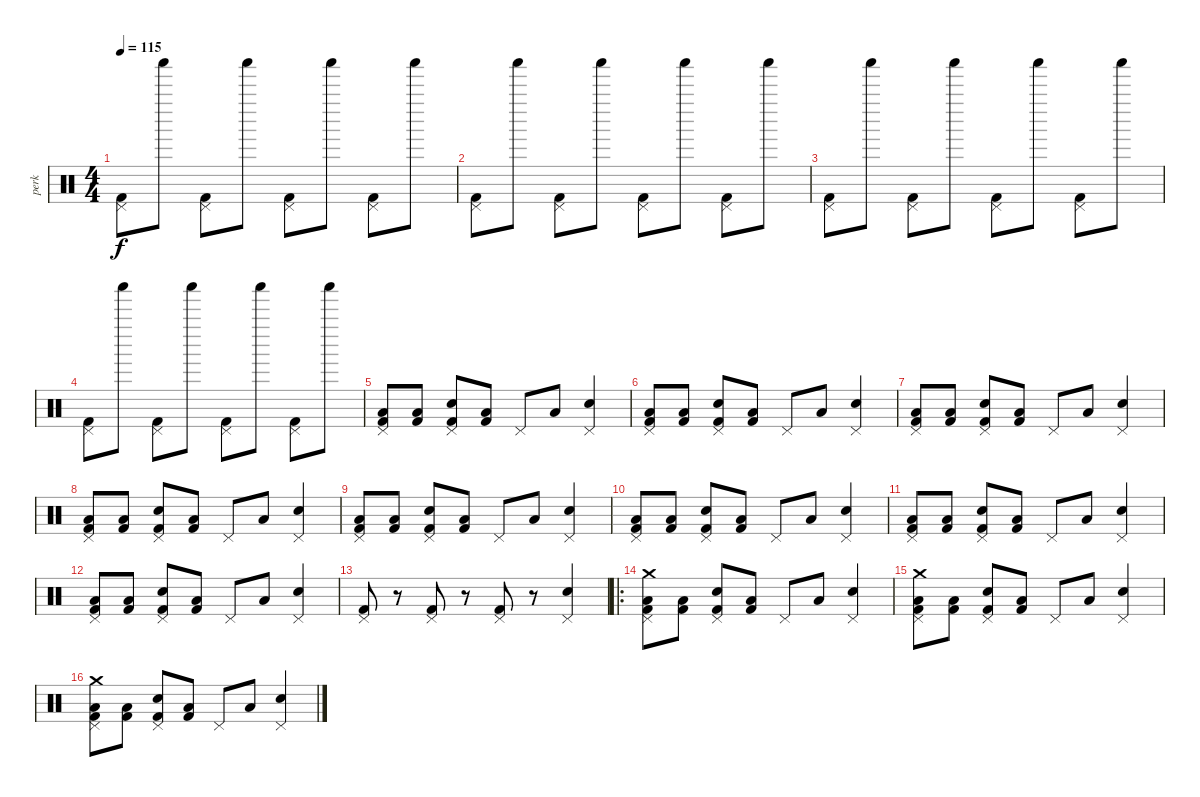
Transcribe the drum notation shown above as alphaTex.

\track ("perk" "perk") {instrument percussion}
\staff {score}
\articulation defaults
\ts (4 4)
\tempo 115
\clef neutral
\ks c
("Pedal Hi-Hat (hit)" "Kick (hit) 2").8{dy f} "Shaker (hit)".8 ("Pedal Hi-Hat (hit)" "Kick (hit) 2").8 "Shaker (hit)".8 ("Pedal Hi-Hat (hit)" "Kick (hit) 2").8 "Shaker (hit)".8 ("Pedal Hi-Hat (hit)" "Kick (hit) 2").8 "Shaker (hit)".8 |
("Pedal Hi-Hat (hit)" "Kick (hit) 2").8 "Shaker (hit)".8 ("Pedal Hi-Hat (hit)" "Kick (hit) 2").8 "Shaker (hit)".8 ("Pedal Hi-Hat (hit)" "Kick (hit) 2").8 "Shaker (hit)".8 ("Pedal Hi-Hat (hit)" "Kick (hit) 2").8 "Shaker (hit)".8 |
("Pedal Hi-Hat (hit)" "Kick (hit) 2").8 "Shaker (hit)".8 ("Pedal Hi-Hat (hit)" "Kick (hit) 2").8 "Shaker (hit)".8 ("Pedal Hi-Hat (hit)" "Kick (hit) 2").8 "Shaker (hit)".8 ("Pedal Hi-Hat (hit)" "Kick (hit) 2").8 "Shaker (hit)".8 |
("Pedal Hi-Hat (hit)" "Kick (hit) 2").8 "Shaker (hit)".8 ("Pedal Hi-Hat (hit)" "Kick (hit) 2").8 "Shaker (hit)".8 ("Pedal Hi-Hat (hit)" "Kick (hit) 2").8 "Shaker (hit)".8 ("Pedal Hi-Hat (hit)" "Kick (hit) 2").8 "Shaker (hit)".8 |
("Pedal Hi-Hat (hit)" "Low Floor Tom (hit)" "Kick (hit) 2").8 ("Low Floor Tom (hit)" "Kick (hit) 2").8 ("Pedal Hi-Hat (hit)" "Snare (hit) 2" "Kick (hit) 2").8 ("Low Floor Tom (hit)" "Kick (hit) 2").8 "Pedal Hi-Hat (hit)".8 "Low Floor Tom (hit)".8 ("Pedal Hi-Hat (hit)" "Snare (hit) 2").4 |
("Pedal Hi-Hat (hit)" "Low Floor Tom (hit)" "Kick (hit) 2").8 ("Low Floor Tom (hit)" "Kick (hit) 2").8 ("Pedal Hi-Hat (hit)" "Snare (hit) 2" "Kick (hit) 2").8 ("Low Floor Tom (hit)" "Kick (hit) 2").8 "Pedal Hi-Hat (hit)".8 "Low Floor Tom (hit)".8 ("Pedal Hi-Hat (hit)" "Snare (hit) 2").4 |
("Pedal Hi-Hat (hit)" "Low Floor Tom (hit)" "Kick (hit) 2").8 ("Low Floor Tom (hit)" "Kick (hit) 2").8 ("Pedal Hi-Hat (hit)" "Snare (hit) 2" "Kick (hit) 2").8 ("Low Floor Tom (hit)" "Kick (hit) 2").8 "Pedal Hi-Hat (hit)".8 "Low Floor Tom (hit)".8 ("Pedal Hi-Hat (hit)" "Snare (hit) 2").4 |
("Pedal Hi-Hat (hit)" "Low Floor Tom (hit)" "Kick (hit) 2").8 ("Low Floor Tom (hit)" "Kick (hit) 2").8 ("Pedal Hi-Hat (hit)" "Snare (hit) 2" "Kick (hit) 2").8 ("Low Floor Tom (hit)" "Kick (hit) 2").8 "Pedal Hi-Hat (hit)".8 "Low Floor Tom (hit)".8 ("Pedal Hi-Hat (hit)" "Snare (hit) 2").4 |
("Pedal Hi-Hat (hit)" "Low Floor Tom (hit)" "Kick (hit) 2").8 ("Low Floor Tom (hit)" "Kick (hit) 2").8 ("Pedal Hi-Hat (hit)" "Snare (hit) 2" "Kick (hit) 2").8 ("Low Floor Tom (hit)" "Kick (hit) 2").8 "Pedal Hi-Hat (hit)".8 "Low Floor Tom (hit)".8 ("Pedal Hi-Hat (hit)" "Snare (hit) 2").4 |
("Pedal Hi-Hat (hit)" "Low Floor Tom (hit)" "Kick (hit) 2").8 ("Low Floor Tom (hit)" "Kick (hit) 2").8 ("Pedal Hi-Hat (hit)" "Snare (hit) 2" "Kick (hit) 2").8 ("Low Floor Tom (hit)" "Kick (hit) 2").8 "Pedal Hi-Hat (hit)".8 "Low Floor Tom (hit)".8 ("Pedal Hi-Hat (hit)" "Snare (hit) 2").4 |
("Pedal Hi-Hat (hit)" "Low Floor Tom (hit)" "Kick (hit) 2").8 ("Low Floor Tom (hit)" "Kick (hit) 2").8 ("Pedal Hi-Hat (hit)" "Snare (hit) 2" "Kick (hit) 2").8 ("Low Floor Tom (hit)" "Kick (hit) 2").8 "Pedal Hi-Hat (hit)".8 "Low Floor Tom (hit)".8 ("Pedal Hi-Hat (hit)" "Snare (hit) 2").4 |
("Pedal Hi-Hat (hit)" "Low Floor Tom (hit)" "Kick (hit) 2").8 ("Low Floor Tom (hit)" "Kick (hit) 2").8 ("Pedal Hi-Hat (hit)" "Snare (hit) 2" "Kick (hit) 2").8 ("Low Floor Tom (hit)" "Kick (hit) 2").8 "Pedal Hi-Hat (hit)".8 "Low Floor Tom (hit)".8 ("Pedal Hi-Hat (hit)" "Snare (hit) 2").4 |
("Pedal Hi-Hat (hit)" "Kick (hit) 2").8 r.8 ("Pedal Hi-Hat (hit)" "Kick (hit) 2").8 r.8 ("Pedal Hi-Hat (hit)" "Kick (hit) 2").8 r.8 ("Pedal Hi-Hat (hit)" "Snare (hit) 2").4 |
\ro
("Crash medium (hit)" "Pedal Hi-Hat (hit)" "Low Floor Tom (hit)" "Kick (hit) 2").8 ("Low Floor Tom (hit)" "Kick (hit) 2").8 ("Pedal Hi-Hat (hit)" "Snare (hit) 2" "Kick (hit) 2").8 ("Low Floor Tom (hit)" "Kick (hit) 2").8 "Pedal Hi-Hat (hit)".8 "Low Floor Tom (hit)".8 ("Pedal Hi-Hat (hit)" "Snare (hit) 2").4 |
("Crash medium (hit)" "Pedal Hi-Hat (hit)" "Low Floor Tom (hit)" "Kick (hit) 2").8 ("Low Floor Tom (hit)" "Kick (hit) 2").8 ("Pedal Hi-Hat (hit)" "Snare (hit) 2" "Kick (hit) 2").8 ("Low Floor Tom (hit)" "Kick (hit) 2").8 "Pedal Hi-Hat (hit)".8 "Low Floor Tom (hit)".8 ("Pedal Hi-Hat (hit)" "Snare (hit) 2").4 |
("Crash medium (hit)" "Pedal Hi-Hat (hit)" "Low Floor Tom (hit)" "Kick (hit) 2").8 ("Low Floor Tom (hit)" "Kick (hit) 2").8 ("Pedal Hi-Hat (hit)" "Snare (hit) 2" "Kick (hit) 2").8 ("Low Floor Tom (hit)" "Kick (hit) 2").8 "Pedal Hi-Hat (hit)".8 "Low Floor Tom (hit)".8 ("Pedal Hi-Hat (hit)" "Snare (hit) 2").4
